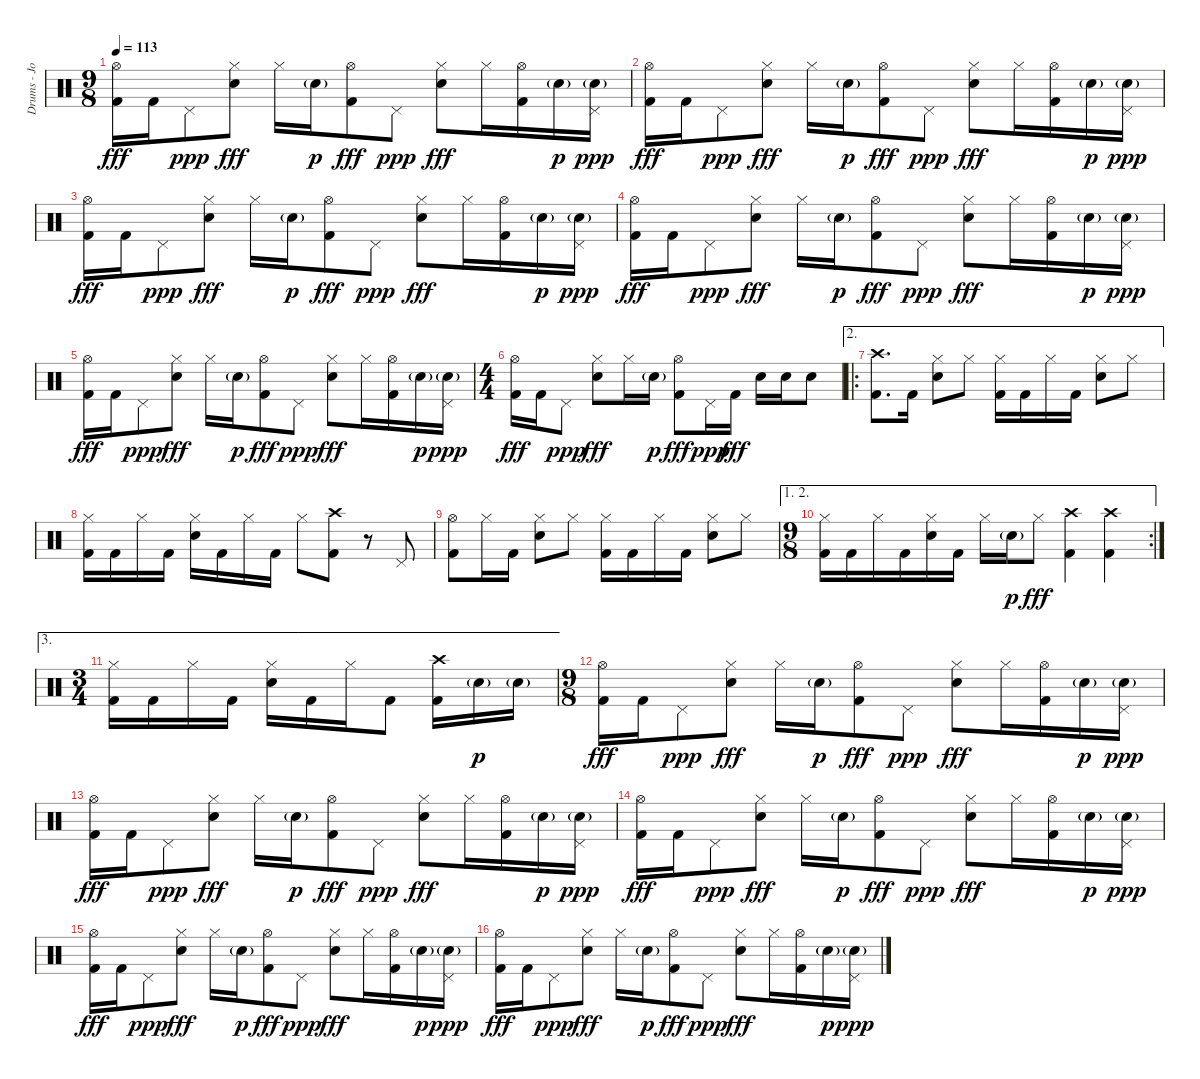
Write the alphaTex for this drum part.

\track ("Drums - John Bonham" "Drums - Jo") {instrument percussion}
\staff {score}
\articulation defaults
\ts (9 8)
\tempo 113
\clef neutral
\ks c
("Hi-Hat (open)" "Kick (hit) 2").16{dy fff} "Kick (hit) 2".16 "Pedal Hi-Hat (hit)".8{dy ppp} ("Hi-Hat (closed)" "Electric Snare (hit)").8{dy fff} "Hi-Hat (closed)".16 "Electric Snare (hit)"{g}.16{dy p} ("Hi-Hat (open)" "Kick (hit) 2").8{dy fff} "Pedal Hi-Hat (hit)".8{dy ppp} ("Hi-Hat (closed)" "Electric Snare (hit)").8{dy fff} "Hi-Hat (closed)".16 ("Hi-Hat (open)" "Kick (hit) 2").16 "Electric Snare (hit)"{g}.16{dy p} ("Electric Snare (hit)"{g} "Pedal Hi-Hat (hit)").16{dy ppp} |
("Hi-Hat (open)" "Kick (hit) 2").16{dy fff} "Kick (hit) 2".16 "Pedal Hi-Hat (hit)".8{dy ppp} ("Hi-Hat (closed)" "Electric Snare (hit)").8{dy fff} "Hi-Hat (closed)".16 "Electric Snare (hit)"{g}.16{dy p} ("Hi-Hat (open)" "Kick (hit) 2").8{dy fff} "Pedal Hi-Hat (hit)".8{dy ppp} ("Hi-Hat (closed)" "Electric Snare (hit)").8{dy fff} "Hi-Hat (closed)".16 ("Hi-Hat (open)" "Kick (hit) 2").16 "Electric Snare (hit)"{g}.16{dy p} ("Electric Snare (hit)"{g} "Pedal Hi-Hat (hit)").16{dy ppp} |
("Hi-Hat (open)" "Kick (hit) 2").16{dy fff} "Kick (hit) 2".16 "Pedal Hi-Hat (hit)".8{dy ppp} ("Hi-Hat (closed)" "Electric Snare (hit)").8{dy fff} "Hi-Hat (closed)".16 "Electric Snare (hit)"{g}.16{dy p} ("Hi-Hat (open)" "Kick (hit) 2").8{dy fff} "Pedal Hi-Hat (hit)".8{dy ppp} ("Hi-Hat (closed)" "Electric Snare (hit)").8{dy fff} "Hi-Hat (closed)".16 ("Hi-Hat (open)" "Kick (hit) 2").16 "Electric Snare (hit)"{g}.16{dy p} ("Electric Snare (hit)"{g} "Pedal Hi-Hat (hit)").16{dy ppp} |
("Hi-Hat (open)" "Kick (hit) 2").16{dy fff} "Kick (hit) 2".16 "Pedal Hi-Hat (hit)".8{dy ppp} ("Hi-Hat (closed)" "Electric Snare (hit)").8{dy fff} "Hi-Hat (closed)".16 "Electric Snare (hit)"{g}.16{dy p} ("Hi-Hat (open)" "Kick (hit) 2").8{dy fff} "Pedal Hi-Hat (hit)".8{dy ppp} ("Hi-Hat (closed)" "Electric Snare (hit)").8{dy fff} "Hi-Hat (closed)".16 ("Hi-Hat (open)" "Kick (hit) 2").16 "Electric Snare (hit)"{g}.16{dy p} ("Electric Snare (hit)"{g} "Pedal Hi-Hat (hit)").16{dy ppp} |
("Hi-Hat (open)" "Kick (hit) 2").16{dy fff} "Kick (hit) 2".16 "Pedal Hi-Hat (hit)".8{dy ppp} ("Hi-Hat (closed)" "Electric Snare (hit)").8{dy fff} "Hi-Hat (closed)".16 "Electric Snare (hit)"{g}.16{dy p} ("Hi-Hat (open)" "Kick (hit) 2").8{dy fff} "Pedal Hi-Hat (hit)".8{dy ppp} ("Hi-Hat (closed)" "Electric Snare (hit)").8{dy fff} "Hi-Hat (closed)".16 ("Hi-Hat (open)" "Kick (hit) 2").16 "Electric Snare (hit)"{g}.16{dy p} ("Electric Snare (hit)"{g} "Pedal Hi-Hat (hit)").16{dy ppp} |
\ts (4 4)
("Hi-Hat (open)" "Kick (hit) 2").16{dy fff} "Kick (hit) 2".16 "Pedal Hi-Hat (hit)".8{dy ppp} ("Hi-Hat (closed)" "Electric Snare (hit)").8{dy fff} "Hi-Hat (closed)".16 "Electric Snare (hit)"{g}.16{dy p} ("Hi-Hat (open)" "Kick (hit) 2").8{dy fff} "Pedal Hi-Hat (hit)".16{dy ppp} "Kick (hit) 2".16{dy fff} "Electric Snare (hit)".16 "Electric Snare (hit)".16 "Electric Snare (hit)".8 |
\ae 2
\ro
("Crash high (hit)" "Kick (hit) 2").8{d} "Kick (hit) 2".16 ("Hi-Hat (closed)" "Electric Snare (hit)").8 "Hi-Hat (closed)".8 ("Hi-Hat (closed)" "Kick (hit) 2").16 "Kick (hit) 2".16 "Hi-Hat (closed)".16 "Kick (hit) 2".16 ("Hi-Hat (closed)" "Electric Snare (hit)").8 "Hi-Hat (closed)".8 |
("Hi-Hat (closed)" "Kick (hit) 2").16 "Kick (hit) 2".16 "Hi-Hat (closed)".16 "Kick (hit) 2".16 ("Hi-Hat (closed)" "Electric Snare (hit)").16 "Kick (hit) 2".16 "Hi-Hat (closed)".16 "Kick (hit) 2".16 "Hi-Hat (closed)".8 ("Crash high (hit)" "Kick (hit) 2").8 r.8 "Pedal Hi-Hat (hit)".8 |
("Hi-Hat (open)" "Kick (hit) 2").8 "Hi-Hat (closed)".16 "Kick (hit) 2".16 ("Hi-Hat (closed)" "Electric Snare (hit)").8 "Hi-Hat (closed)".8 ("Hi-Hat (closed)" "Kick (hit) 2").16 "Kick (hit) 2".16 "Hi-Hat (closed)".16 "Kick (hit) 2".16 ("Hi-Hat (closed)" "Electric Snare (hit)").8 "Hi-Hat (closed)".8 |
\ae (1 2)
\rc 2
\ts (9 8)
("Hi-Hat (closed)" "Kick (hit) 2").16 "Kick (hit) 2".16 "Hi-Hat (closed)".16 "Kick (hit) 2".16 ("Hi-Hat (closed)" "Electric Snare (hit)").16 "Kick (hit) 2".16 "Hi-Hat (closed)".16 "Electric Snare (hit)"{g}.16{dy p} "Hi-Hat (closed)".8{dy fff} ("Crash high (hit)" "Kick (hit) 2").4 ("Crash high (hit)" "Kick (hit) 2").4 |
\ae 3
\ts (3 4)
("Hi-Hat (closed)" "Kick (hit) 2").16 "Kick (hit) 2".16 "Hi-Hat (closed)".16 "Kick (hit) 2".16 ("Hi-Hat (closed)" "Electric Snare (hit)").16 "Kick (hit) 2".16 "Hi-Hat (closed)".16 "Kick (hit) 2".8 ("Crash high (hit)" "Kick (hit) 2").16 "Electric Snare (hit)"{g}.16{dy p} "Electric Snare (hit)"{g}.16 |
\ts (9 8)
("Hi-Hat (open)" "Kick (hit) 2").16{dy fff} "Kick (hit) 2".16 "Pedal Hi-Hat (hit)".8{dy ppp} ("Hi-Hat (closed)" "Electric Snare (hit)").8{dy fff} "Hi-Hat (closed)".16 "Electric Snare (hit)"{g}.16{dy p} ("Hi-Hat (open)" "Kick (hit) 2").8{dy fff} "Pedal Hi-Hat (hit)".8{dy ppp} ("Hi-Hat (closed)" "Electric Snare (hit)").8{dy fff} "Hi-Hat (closed)".16 ("Hi-Hat (open)" "Kick (hit) 2").16 "Electric Snare (hit)"{g}.16{dy p} ("Electric Snare (hit)"{g} "Pedal Hi-Hat (hit)").16{dy ppp} |
("Hi-Hat (open)" "Kick (hit) 2").16{dy fff} "Kick (hit) 2".16 "Pedal Hi-Hat (hit)".8{dy ppp} ("Hi-Hat (closed)" "Electric Snare (hit)").8{dy fff} "Hi-Hat (closed)".16 "Electric Snare (hit)"{g}.16{dy p} ("Hi-Hat (open)" "Kick (hit) 2").8{dy fff} "Pedal Hi-Hat (hit)".8{dy ppp} ("Hi-Hat (closed)" "Electric Snare (hit)").8{dy fff} "Hi-Hat (closed)".16 ("Hi-Hat (open)" "Kick (hit) 2").16 "Electric Snare (hit)"{g}.16{dy p} ("Electric Snare (hit)"{g} "Pedal Hi-Hat (hit)").16{dy ppp} |
("Hi-Hat (open)" "Kick (hit) 2").16{dy fff} "Kick (hit) 2".16 "Pedal Hi-Hat (hit)".8{dy ppp} ("Hi-Hat (closed)" "Electric Snare (hit)").8{dy fff} "Hi-Hat (closed)".16 "Electric Snare (hit)"{g}.16{dy p} ("Hi-Hat (open)" "Kick (hit) 2").8{dy fff} "Pedal Hi-Hat (hit)".8{dy ppp} ("Hi-Hat (closed)" "Electric Snare (hit)").8{dy fff} "Hi-Hat (closed)".16 ("Hi-Hat (open)" "Kick (hit) 2").16 "Electric Snare (hit)"{g}.16{dy p} ("Electric Snare (hit)"{g} "Pedal Hi-Hat (hit)").16{dy ppp} |
("Hi-Hat (open)" "Kick (hit) 2").16{dy fff} "Kick (hit) 2".16 "Pedal Hi-Hat (hit)".8{dy ppp} ("Hi-Hat (closed)" "Electric Snare (hit)").8{dy fff} "Hi-Hat (closed)".16 "Electric Snare (hit)"{g}.16{dy p} ("Hi-Hat (open)" "Kick (hit) 2").8{dy fff} "Pedal Hi-Hat (hit)".8{dy ppp} ("Hi-Hat (closed)" "Electric Snare (hit)").8{dy fff} "Hi-Hat (closed)".16 ("Hi-Hat (open)" "Kick (hit) 2").16 "Electric Snare (hit)"{g}.16{dy p} ("Electric Snare (hit)"{g} "Pedal Hi-Hat (hit)").16{dy ppp} |
("Hi-Hat (open)" "Kick (hit) 2").16{dy fff} "Kick (hit) 2".16 "Pedal Hi-Hat (hit)".8{dy ppp} ("Hi-Hat (closed)" "Electric Snare (hit)").8{dy fff} "Hi-Hat (closed)".16 "Electric Snare (hit)"{g}.16{dy p} ("Hi-Hat (open)" "Kick (hit) 2").8{dy fff} "Pedal Hi-Hat (hit)".8{dy ppp} ("Hi-Hat (closed)" "Electric Snare (hit)").8{dy fff} "Hi-Hat (closed)".16 ("Hi-Hat (open)" "Kick (hit) 2").16 "Electric Snare (hit)"{g}.16{dy p} ("Electric Snare (hit)"{g} "Pedal Hi-Hat (hit)").16{dy ppp}
